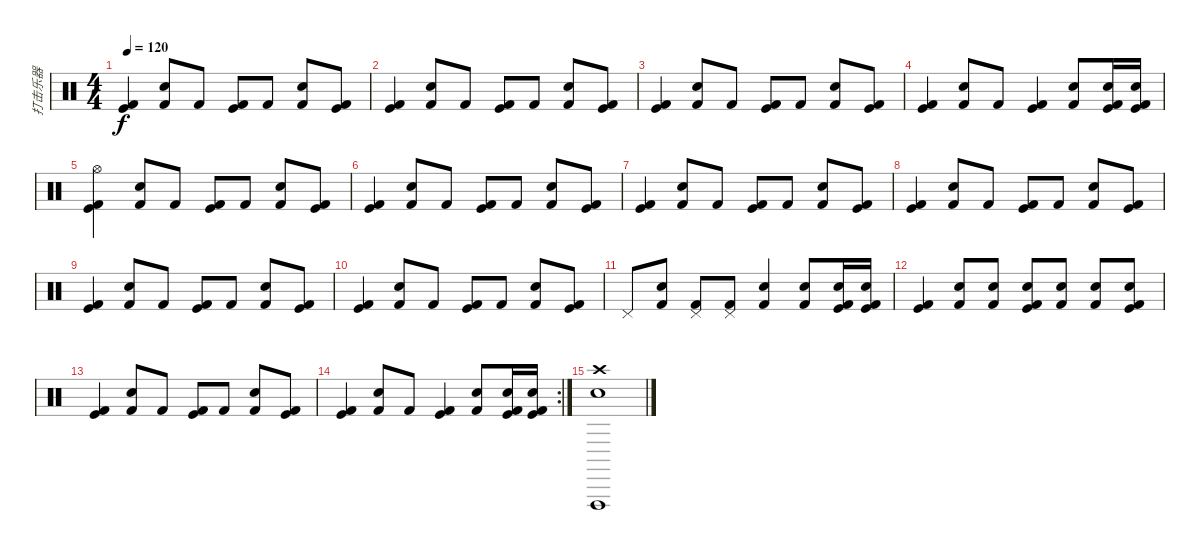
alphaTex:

\track ("打击乐器" "打击乐器") {instrument percussion}
\staff {score}
\articulation defaults
\ts (4 4)
\tempo 120
\clef neutral
\ks c
("Kick (hit) 2" "Kick (hit)").4{dy f} ("Kick (hit) 2" "Electric Snare (hit)").8 "Kick (hit) 2".8 ("Kick (hit) 2" "Kick (hit)").8 "Kick (hit) 2".8 ("Kick (hit) 2" "Electric Snare (hit)").8 ("Kick (hit) 2" "Kick (hit)").8 |
("Kick (hit) 2" "Kick (hit)").4 ("Kick (hit) 2" "Electric Snare (hit)").8 "Kick (hit) 2".8 ("Kick (hit) 2" "Kick (hit)").8 "Kick (hit) 2".8 ("Kick (hit) 2" "Electric Snare (hit)").8 ("Kick (hit) 2" "Kick (hit)").8 |
("Kick (hit) 2" "Kick (hit)").4 ("Kick (hit) 2" "Electric Snare (hit)").8 "Kick (hit) 2".8 ("Kick (hit) 2" "Kick (hit)").8 "Kick (hit) 2".8 ("Kick (hit) 2" "Electric Snare (hit)").8 ("Kick (hit) 2" "Kick (hit)").8 |
("Kick (hit) 2" "Kick (hit)").4 ("Kick (hit) 2" "Electric Snare (hit)").8 "Kick (hit) 2".8 ("Kick (hit) 2" "Kick (hit)").4 ("Kick (hit) 2" "Electric Snare (hit)").8 ("Kick (hit) 2" "Kick (hit)" "Electric Snare (hit)").16 ("Kick (hit) 2" "Kick (hit)" "Electric Snare (hit)").16 |
("Kick (hit) 2" "Kick (hit)" "Hi-Hat (open)").4 ("Kick (hit) 2" "Electric Snare (hit)").8 "Kick (hit) 2".8 ("Kick (hit) 2" "Kick (hit)").8 "Kick (hit) 2".8 ("Kick (hit) 2" "Electric Snare (hit)").8 ("Kick (hit) 2" "Kick (hit)").8 |
("Kick (hit) 2" "Kick (hit)").4 ("Kick (hit) 2" "Electric Snare (hit)").8 "Kick (hit) 2".8 ("Kick (hit) 2" "Kick (hit)").8 "Kick (hit) 2".8 ("Kick (hit) 2" "Electric Snare (hit)").8 ("Kick (hit) 2" "Kick (hit)").8 |
("Kick (hit) 2" "Kick (hit)").4 ("Kick (hit) 2" "Electric Snare (hit)").8 "Kick (hit) 2".8 ("Kick (hit) 2" "Kick (hit)").8 "Kick (hit) 2".8 ("Kick (hit) 2" "Electric Snare (hit)").8 ("Kick (hit) 2" "Kick (hit)").8 |
("Kick (hit) 2" "Kick (hit)").4 ("Kick (hit) 2" "Electric Snare (hit)").8 "Kick (hit) 2".8 ("Kick (hit) 2" "Kick (hit)").8 "Kick (hit) 2".8 ("Kick (hit) 2" "Electric Snare (hit)").8 ("Kick (hit) 2" "Kick (hit)").8 |
("Kick (hit) 2" "Kick (hit)").4 ("Kick (hit) 2" "Electric Snare (hit)").8 "Kick (hit) 2".8 ("Kick (hit) 2" "Kick (hit)").8 "Kick (hit) 2".8 ("Kick (hit) 2" "Electric Snare (hit)").8 ("Kick (hit) 2" "Kick (hit)").8 |
("Kick (hit) 2" "Kick (hit)").4 ("Kick (hit) 2" "Electric Snare (hit)").8 "Kick (hit) 2".8 ("Kick (hit) 2" "Kick (hit)").8 "Kick (hit) 2".8 ("Kick (hit) 2" "Electric Snare (hit)").8 ("Kick (hit) 2" "Kick (hit)").8 |
"Pedal Hi-Hat (hit)".8 ("Kick (hit) 2" "Electric Snare (hit)").8 ("Kick (hit) 2" "Pedal Hi-Hat (hit)").8 ("Kick (hit) 2" "Pedal Hi-Hat (hit)").8 ("Kick (hit) 2" "Electric Snare (hit)").4 ("Kick (hit) 2" "Electric Snare (hit)").8 ("Kick (hit) 2" "Kick (hit)" "Electric Snare (hit)").16 ("Kick (hit) 2" "Kick (hit)" "Electric Snare (hit)").16 |
("Kick (hit) 2" "Kick (hit)").4 ("Kick (hit) 2" "Electric Snare (hit)").8 ("Kick (hit) 2" "Electric Snare (hit)").8 ("Kick (hit) 2" "Kick (hit)" "Electric Snare (hit)").8 ("Kick (hit) 2" "Electric Snare (hit)").8 ("Kick (hit) 2" "Electric Snare (hit)").8 ("Kick (hit) 2" "Kick (hit)" "Electric Snare (hit)").8 |
("Kick (hit) 2" "Kick (hit)").4 ("Kick (hit) 2" "Electric Snare (hit)").8 "Kick (hit) 2".8 ("Kick (hit) 2" "Kick (hit)").8 "Kick (hit) 2".8 ("Kick (hit) 2" "Electric Snare (hit)").8 ("Kick (hit) 2" "Kick (hit)").8 |
\rc 2
("Kick (hit) 2" "Kick (hit)").4 ("Kick (hit) 2" "Electric Snare (hit)").8 "Kick (hit) 2".8 ("Kick (hit) 2" "Kick (hit)").4 ("Kick (hit) 2" "Electric Snare (hit)").8 ("Kick (hit) 2" "Kick (hit)" "Electric Snare (hit)").16 ("Kick (hit) 2" "Kick (hit)" "Electric Snare (hit)").16 |
("Crash high (hit)" "Electric Snare (hit)" "Vibraslap (hit)").1
